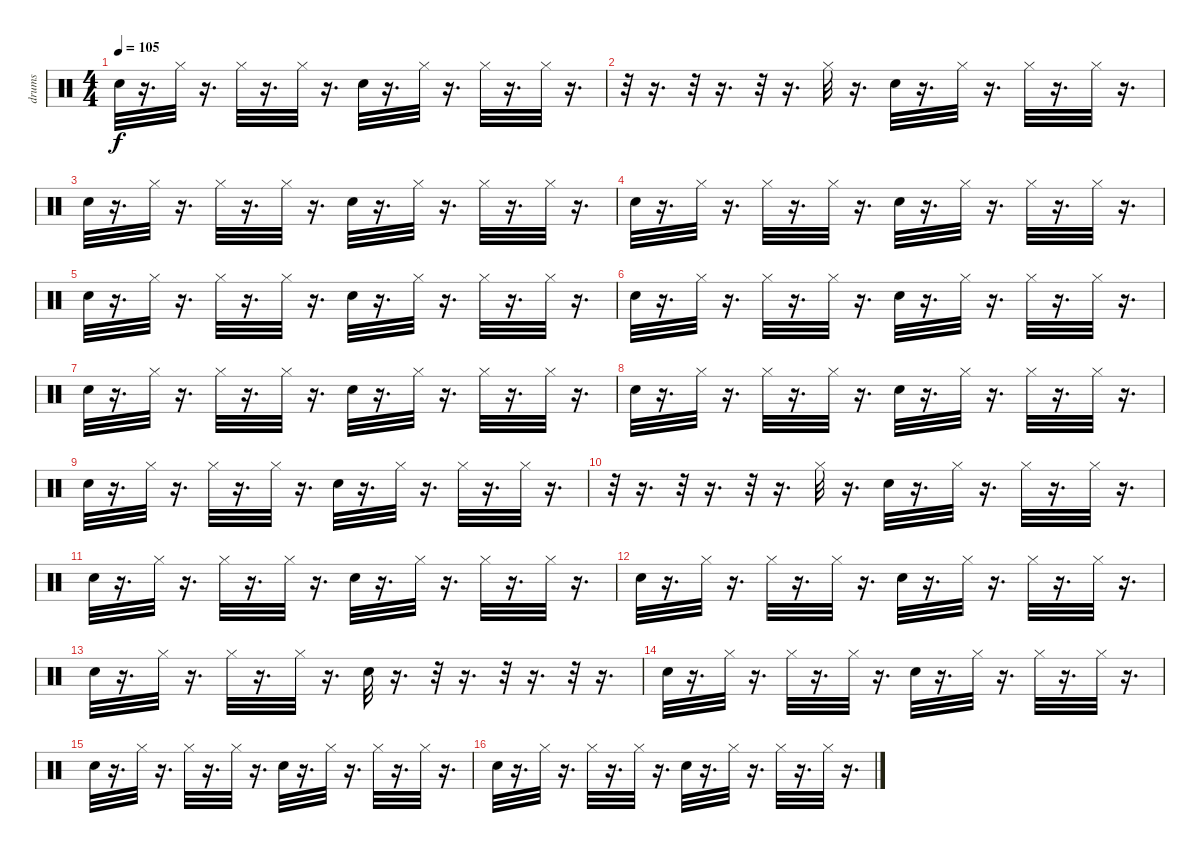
\track ("drums" "drums") {instrument percussion}
\staff {score}
\articulation defaults
\ts (4 4)
\tempo 105
\clef neutral
\ks c "Snare (hit) 2".32{dy f}
r.16{d} "Hi-Hat (closed)".32 r.16{d} "Hi-Hat (closed)".32 r.16{d} "Hi-Hat (closed)".32 r.16{d} "Snare (hit) 2".32 r.16{d} "Hi-Hat (closed)".32 r.16{d} "Hi-Hat (closed)".32 r.16{d} "Hi-Hat (closed)".32 r.16{d} |
r.32 r.16{d} r.32 r.16{d} r.32 r.16{d} "Hi-Hat (closed)".32 r.16{d} "Snare (hit) 2".32 r.16{d} "Hi-Hat (closed)".32 r.16{d} "Hi-Hat (closed)".32 r.16{d} "Hi-Hat (closed)".32 r.16{d} |
"Snare (hit) 2".32 r.16{d} "Hi-Hat (closed)".32 r.16{d} "Hi-Hat (closed)".32 r.16{d} "Hi-Hat (closed)".32 r.16{d} "Snare (hit) 2".32 r.16{d} "Hi-Hat (closed)".32 r.16{d} "Hi-Hat (closed)".32 r.16{d} "Hi-Hat (closed)".32 r.16{d} |
"Snare (hit) 2".32 r.16{d} "Hi-Hat (closed)".32 r.16{d} "Hi-Hat (closed)".32 r.16{d} "Hi-Hat (closed)".32 r.16{d} "Snare (hit) 2".32 r.16{d} "Hi-Hat (closed)".32 r.16{d} "Hi-Hat (closed)".32 r.16{d} "Hi-Hat (closed)".32 r.16{d} |
"Snare (hit) 2".32 r.16{d} "Hi-Hat (closed)".32 r.16{d} "Hi-Hat (closed)".32 r.16{d} "Hi-Hat (closed)".32 r.16{d} "Snare (hit) 2".32 r.16{d} "Hi-Hat (closed)".32 r.16{d} "Hi-Hat (closed)".32 r.16{d} "Hi-Hat (closed)".32 r.16{d} |
"Snare (hit) 2".32 r.16{d} "Hi-Hat (closed)".32 r.16{d} "Hi-Hat (closed)".32 r.16{d} "Hi-Hat (closed)".32 r.16{d} "Snare (hit) 2".32 r.16{d} "Hi-Hat (closed)".32 r.16{d} "Hi-Hat (closed)".32 r.16{d} "Hi-Hat (closed)".32 r.16{d} |
"Snare (hit) 2".32 r.16{d} "Hi-Hat (closed)".32 r.16{d} "Hi-Hat (closed)".32 r.16{d} "Hi-Hat (closed)".32 r.16{d} "Snare (hit) 2".32 r.16{d} "Hi-Hat (closed)".32 r.16{d} "Hi-Hat (closed)".32 r.16{d} "Hi-Hat (closed)".32 r.16{d} |
"Snare (hit) 2".32 r.16{d} "Hi-Hat (closed)".32 r.16{d} "Hi-Hat (closed)".32 r.16{d} "Hi-Hat (closed)".32 r.16{d} "Snare (hit) 2".32 r.16{d} "Hi-Hat (closed)".32 r.16{d} "Hi-Hat (closed)".32 r.16{d} "Hi-Hat (closed)".32 r.16{d} |
"Snare (hit) 2".32 r.16{d} "Hi-Hat (closed)".32 r.16{d} "Hi-Hat (closed)".32 r.16{d} "Hi-Hat (closed)".32 r.16{d} "Snare (hit) 2".32 r.16{d} "Hi-Hat (closed)".32 r.16{d} "Hi-Hat (closed)".32 r.16{d} "Hi-Hat (closed)".32 r.16{d} |
r.32 r.16{d} r.32 r.16{d} r.32 r.16{d} "Hi-Hat (closed)".32 r.16{d} "Snare (hit) 2".32 r.16{d} "Hi-Hat (closed)".32 r.16{d} "Hi-Hat (closed)".32 r.16{d} "Hi-Hat (closed)".32 r.16{d} |
"Snare (hit) 2".32 r.16{d} "Hi-Hat (closed)".32 r.16{d} "Hi-Hat (closed)".32 r.16{d} "Hi-Hat (closed)".32 r.16{d} "Snare (hit) 2".32 r.16{d} "Hi-Hat (closed)".32 r.16{d} "Hi-Hat (closed)".32 r.16{d} "Hi-Hat (closed)".32 r.16{d} |
"Snare (hit) 2".32 r.16{d} "Hi-Hat (closed)".32 r.16{d} "Hi-Hat (closed)".32 r.16{d} "Hi-Hat (closed)".32 r.16{d} "Snare (hit) 2".32 r.16{d} "Hi-Hat (closed)".32 r.16{d} "Hi-Hat (closed)".32 r.16{d} "Hi-Hat (closed)".32 r.16{d} |
"Snare (hit) 2".32 r.16{d} "Hi-Hat (closed)".32 r.16{d} "Hi-Hat (closed)".32 r.16{d} "Hi-Hat (closed)".32 r.16{d} "Snare (hit) 2".32 r.16{d} r.32 r.16{d} r.32 r.16{d} r.32 r.16{d} |
"Snare (hit) 2".32 r.16{d} "Hi-Hat (closed)".32 r.16{d} "Hi-Hat (closed)".32 r.16{d} "Hi-Hat (closed)".32 r.16{d} "Snare (hit) 2".32 r.16{d} "Hi-Hat (closed)".32 r.16{d} "Hi-Hat (closed)".32 r.16{d} "Hi-Hat (closed)".32 r.16{d} |
"Snare (hit) 2".32 r.16{d} "Hi-Hat (closed)".32 r.16{d} "Hi-Hat (closed)".32 r.16{d} "Hi-Hat (closed)".32 r.16{d} "Snare (hit) 2".32 r.16{d} "Hi-Hat (closed)".32 r.16{d} "Hi-Hat (closed)".32 r.16{d} "Hi-Hat (closed)".32 r.16{d} |
"Snare (hit) 2".32 r.16{d} "Hi-Hat (closed)".32 r.16{d} "Hi-Hat (closed)".32 r.16{d} "Hi-Hat (closed)".32 r.16{d} "Snare (hit) 2".32 r.16{d} "Hi-Hat (closed)".32 r.16{d} "Hi-Hat (closed)".32 r.16{d} "Hi-Hat (closed)".32 r.16{d}
